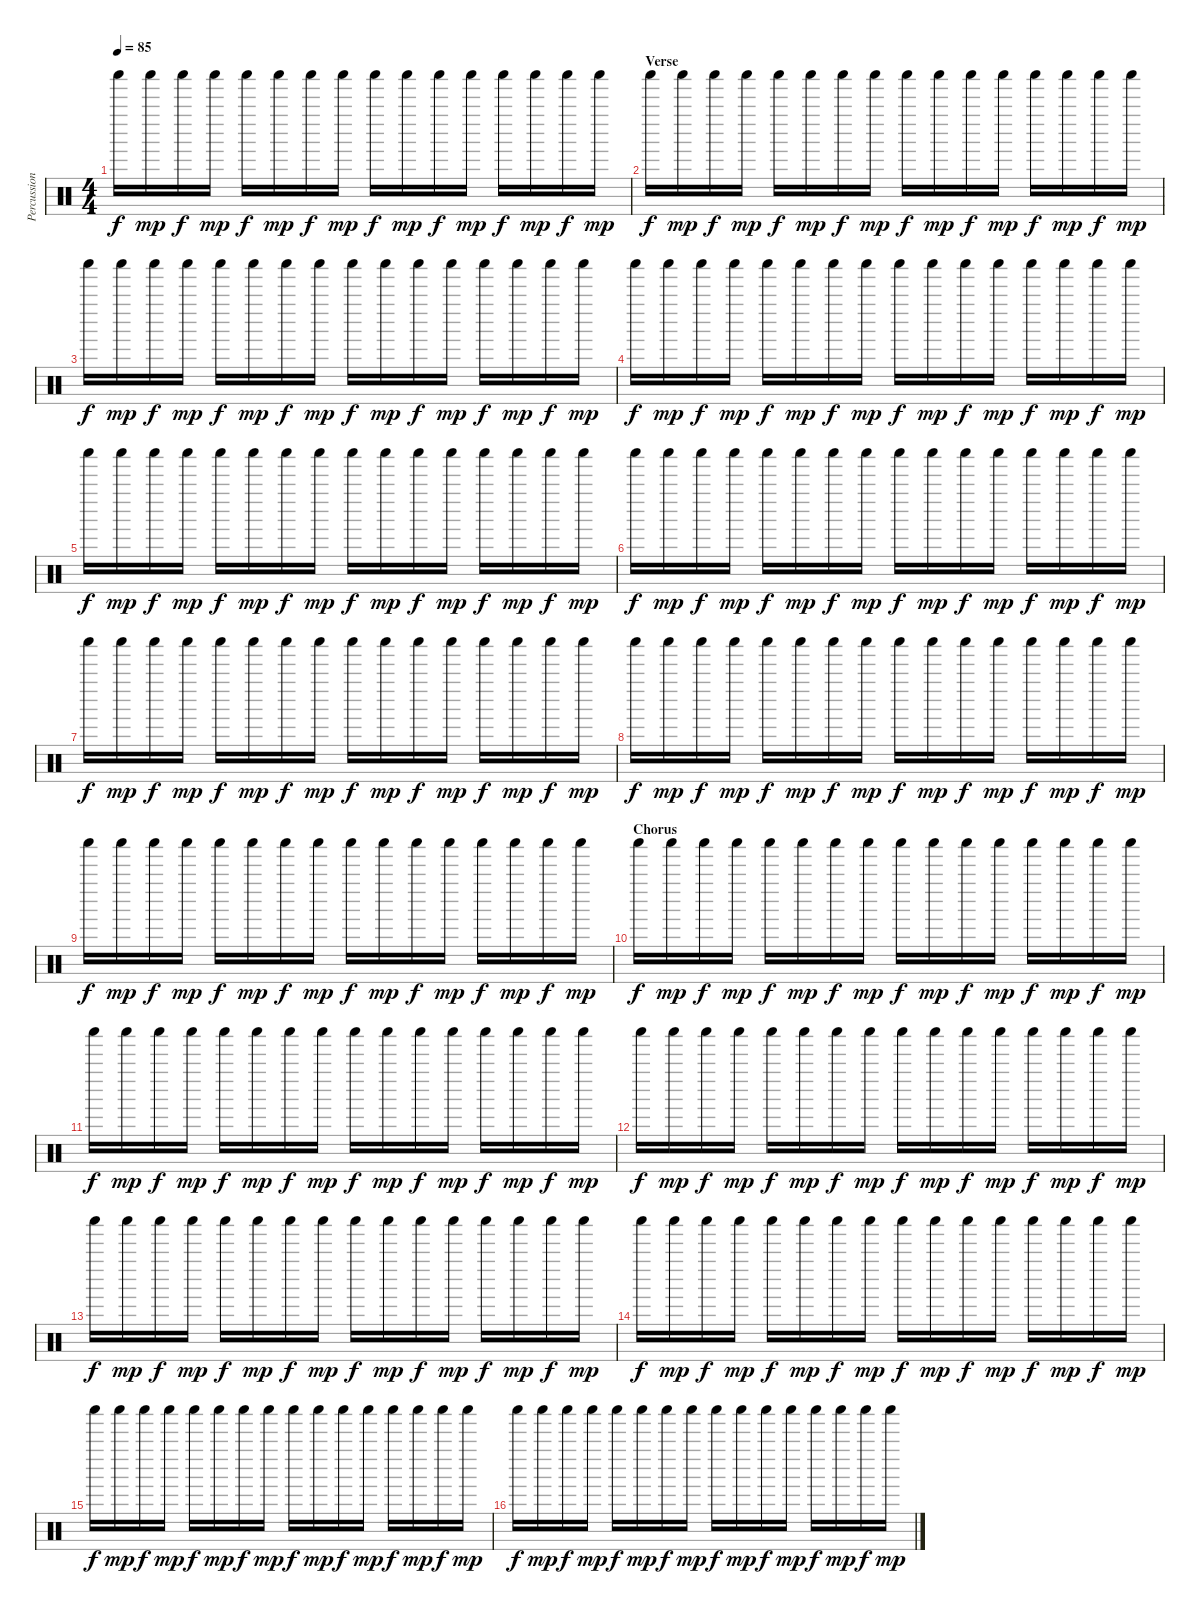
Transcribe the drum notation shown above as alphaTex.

\track ("Percussion" "Percussion") {instrument percussion}
\staff {score}
\articulation defaults
\ts (4 4)
\tempo 85
\clef neutral
\ks c "Shaker (hit)".16{dy f} "Shaker (hit)".16{dy mp} "Shaker (hit)".16{dy f} "Shaker (hit)".16{dy mp} "Shaker (hit)".16{dy f} "Shaker (hit)".16{dy mp} "Shaker (hit)".16{dy f} "Shaker (hit)".16{dy mp} "Shaker (hit)".16{dy f} "Shaker (hit)".16{dy mp} "Shaker (hit)".16{dy f} "Shaker (hit)".16{dy mp} "Shaker (hit)".16{dy f} "Shaker (hit)".16{dy mp} "Shaker (hit)".16{dy f} "Shaker (hit)".16{dy mp}
|
\section ("" "Verse")
"Shaker (hit)".16{dy f} "Shaker (hit)".16{dy mp} "Shaker (hit)".16{dy f} "Shaker (hit)".16{dy mp} "Shaker (hit)".16{dy f} "Shaker (hit)".16{dy mp} "Shaker (hit)".16{dy f} "Shaker (hit)".16{dy mp} "Shaker (hit)".16{dy f} "Shaker (hit)".16{dy mp} "Shaker (hit)".16{dy f} "Shaker (hit)".16{dy mp} "Shaker (hit)".16{dy f} "Shaker (hit)".16{dy mp} "Shaker (hit)".16{dy f} "Shaker (hit)".16{dy mp} |
"Shaker (hit)".16{dy f} "Shaker (hit)".16{dy mp} "Shaker (hit)".16{dy f} "Shaker (hit)".16{dy mp} "Shaker (hit)".16{dy f} "Shaker (hit)".16{dy mp} "Shaker (hit)".16{dy f} "Shaker (hit)".16{dy mp} "Shaker (hit)".16{dy f} "Shaker (hit)".16{dy mp} "Shaker (hit)".16{dy f} "Shaker (hit)".16{dy mp} "Shaker (hit)".16{dy f} "Shaker (hit)".16{dy mp} "Shaker (hit)".16{dy f} "Shaker (hit)".16{dy mp} |
"Shaker (hit)".16{dy f} "Shaker (hit)".16{dy mp} "Shaker (hit)".16{dy f} "Shaker (hit)".16{dy mp} "Shaker (hit)".16{dy f} "Shaker (hit)".16{dy mp} "Shaker (hit)".16{dy f} "Shaker (hit)".16{dy mp} "Shaker (hit)".16{dy f} "Shaker (hit)".16{dy mp} "Shaker (hit)".16{dy f} "Shaker (hit)".16{dy mp} "Shaker (hit)".16{dy f} "Shaker (hit)".16{dy mp} "Shaker (hit)".16{dy f} "Shaker (hit)".16{dy mp} |
"Shaker (hit)".16{dy f} "Shaker (hit)".16{dy mp} "Shaker (hit)".16{dy f} "Shaker (hit)".16{dy mp} "Shaker (hit)".16{dy f} "Shaker (hit)".16{dy mp} "Shaker (hit)".16{dy f} "Shaker (hit)".16{dy mp} "Shaker (hit)".16{dy f} "Shaker (hit)".16{dy mp} "Shaker (hit)".16{dy f} "Shaker (hit)".16{dy mp} "Shaker (hit)".16{dy f} "Shaker (hit)".16{dy mp} "Shaker (hit)".16{dy f} "Shaker (hit)".16{dy mp} |
"Shaker (hit)".16{dy f} "Shaker (hit)".16{dy mp} "Shaker (hit)".16{dy f} "Shaker (hit)".16{dy mp} "Shaker (hit)".16{dy f} "Shaker (hit)".16{dy mp} "Shaker (hit)".16{dy f} "Shaker (hit)".16{dy mp} "Shaker (hit)".16{dy f} "Shaker (hit)".16{dy mp} "Shaker (hit)".16{dy f} "Shaker (hit)".16{dy mp} "Shaker (hit)".16{dy f} "Shaker (hit)".16{dy mp} "Shaker (hit)".16{dy f} "Shaker (hit)".16{dy mp} |
"Shaker (hit)".16{dy f} "Shaker (hit)".16{dy mp} "Shaker (hit)".16{dy f} "Shaker (hit)".16{dy mp} "Shaker (hit)".16{dy f} "Shaker (hit)".16{dy mp} "Shaker (hit)".16{dy f} "Shaker (hit)".16{dy mp} "Shaker (hit)".16{dy f} "Shaker (hit)".16{dy mp} "Shaker (hit)".16{dy f} "Shaker (hit)".16{dy mp} "Shaker (hit)".16{dy f} "Shaker (hit)".16{dy mp} "Shaker (hit)".16{dy f} "Shaker (hit)".16{dy mp} |
"Shaker (hit)".16{dy f} "Shaker (hit)".16{dy mp} "Shaker (hit)".16{dy f} "Shaker (hit)".16{dy mp} "Shaker (hit)".16{dy f} "Shaker (hit)".16{dy mp} "Shaker (hit)".16{dy f} "Shaker (hit)".16{dy mp} "Shaker (hit)".16{dy f} "Shaker (hit)".16{dy mp} "Shaker (hit)".16{dy f} "Shaker (hit)".16{dy mp} "Shaker (hit)".16{dy f} "Shaker (hit)".16{dy mp} "Shaker (hit)".16{dy f} "Shaker (hit)".16{dy mp} |
"Shaker (hit)".16{dy f} "Shaker (hit)".16{dy mp} "Shaker (hit)".16{dy f} "Shaker (hit)".16{dy mp} "Shaker (hit)".16{dy f} "Shaker (hit)".16{dy mp} "Shaker (hit)".16{dy f} "Shaker (hit)".16{dy mp} "Shaker (hit)".16{dy f} "Shaker (hit)".16{dy mp} "Shaker (hit)".16{dy f} "Shaker (hit)".16{dy mp} "Shaker (hit)".16{dy f} "Shaker (hit)".16{dy mp} "Shaker (hit)".16{dy f} "Shaker (hit)".16{dy mp} |
\section ("" "Chorus")
"Shaker (hit)".16{dy f} "Shaker (hit)".16{dy mp} "Shaker (hit)".16{dy f} "Shaker (hit)".16{dy mp} "Shaker (hit)".16{dy f} "Shaker (hit)".16{dy mp} "Shaker (hit)".16{dy f} "Shaker (hit)".16{dy mp} "Shaker (hit)".16{dy f} "Shaker (hit)".16{dy mp} "Shaker (hit)".16{dy f} "Shaker (hit)".16{dy mp} "Shaker (hit)".16{dy f} "Shaker (hit)".16{dy mp} "Shaker (hit)".16{dy f} "Shaker (hit)".16{dy mp} |
"Shaker (hit)".16{dy f} "Shaker (hit)".16{dy mp} "Shaker (hit)".16{dy f} "Shaker (hit)".16{dy mp} "Shaker (hit)".16{dy f} "Shaker (hit)".16{dy mp} "Shaker (hit)".16{dy f} "Shaker (hit)".16{dy mp} "Shaker (hit)".16{dy f} "Shaker (hit)".16{dy mp} "Shaker (hit)".16{dy f} "Shaker (hit)".16{dy mp} "Shaker (hit)".16{dy f} "Shaker (hit)".16{dy mp} "Shaker (hit)".16{dy f} "Shaker (hit)".16{dy mp} |
"Shaker (hit)".16{dy f} "Shaker (hit)".16{dy mp} "Shaker (hit)".16{dy f} "Shaker (hit)".16{dy mp} "Shaker (hit)".16{dy f} "Shaker (hit)".16{dy mp} "Shaker (hit)".16{dy f} "Shaker (hit)".16{dy mp} "Shaker (hit)".16{dy f} "Shaker (hit)".16{dy mp} "Shaker (hit)".16{dy f} "Shaker (hit)".16{dy mp} "Shaker (hit)".16{dy f} "Shaker (hit)".16{dy mp} "Shaker (hit)".16{dy f} "Shaker (hit)".16{dy mp} |
"Shaker (hit)".16{dy f} "Shaker (hit)".16{dy mp} "Shaker (hit)".16{dy f} "Shaker (hit)".16{dy mp} "Shaker (hit)".16{dy f} "Shaker (hit)".16{dy mp} "Shaker (hit)".16{dy f} "Shaker (hit)".16{dy mp} "Shaker (hit)".16{dy f} "Shaker (hit)".16{dy mp} "Shaker (hit)".16{dy f} "Shaker (hit)".16{dy mp} "Shaker (hit)".16{dy f} "Shaker (hit)".16{dy mp} "Shaker (hit)".16{dy f} "Shaker (hit)".16{dy mp} |
"Shaker (hit)".16{dy f} "Shaker (hit)".16{dy mp} "Shaker (hit)".16{dy f} "Shaker (hit)".16{dy mp} "Shaker (hit)".16{dy f} "Shaker (hit)".16{dy mp} "Shaker (hit)".16{dy f} "Shaker (hit)".16{dy mp} "Shaker (hit)".16{dy f} "Shaker (hit)".16{dy mp} "Shaker (hit)".16{dy f} "Shaker (hit)".16{dy mp} "Shaker (hit)".16{dy f} "Shaker (hit)".16{dy mp} "Shaker (hit)".16{dy f} "Shaker (hit)".16{dy mp} |
"Shaker (hit)".16{dy f} "Shaker (hit)".16{dy mp} "Shaker (hit)".16{dy f} "Shaker (hit)".16{dy mp} "Shaker (hit)".16{dy f} "Shaker (hit)".16{dy mp} "Shaker (hit)".16{dy f} "Shaker (hit)".16{dy mp} "Shaker (hit)".16{dy f} "Shaker (hit)".16{dy mp} "Shaker (hit)".16{dy f} "Shaker (hit)".16{dy mp} "Shaker (hit)".16{dy f} "Shaker (hit)".16{dy mp} "Shaker (hit)".16{dy f} "Shaker (hit)".16{dy mp} |
"Shaker (hit)".16{dy f} "Shaker (hit)".16{dy mp} "Shaker (hit)".16{dy f} "Shaker (hit)".16{dy mp} "Shaker (hit)".16{dy f} "Shaker (hit)".16{dy mp} "Shaker (hit)".16{dy f} "Shaker (hit)".16{dy mp} "Shaker (hit)".16{dy f} "Shaker (hit)".16{dy mp} "Shaker (hit)".16{dy f} "Shaker (hit)".16{dy mp} "Shaker (hit)".16{dy f} "Shaker (hit)".16{dy mp} "Shaker (hit)".16{dy f} "Shaker (hit)".16{dy mp}
